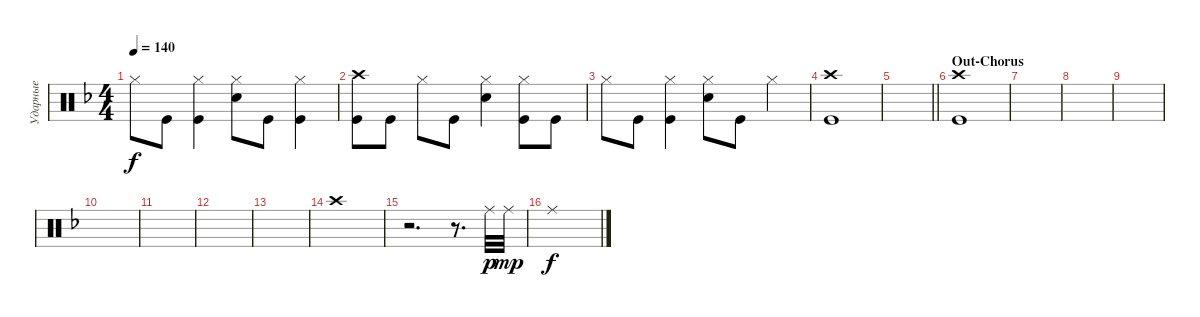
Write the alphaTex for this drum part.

\track ("Ударные" "Ударные") {instrument percussion}
\staff {score}
\articulation defaults
\ts (4 4)
\tempo 140
\clef neutral
\ks dminor "Hi-Hat (closed)".8{dy f} "Kick (hit)".8
("Kick (hit)" "Hi-Hat (closed)").4 ("Snare (hit) 2" "Hi-Hat (closed)").8 "Kick (hit)".8 ("Hi-Hat (closed)" "Kick (hit)").4 |
("Kick (hit)" "Crash high (hit)").8 "Kick (hit)".8 "Hi-Hat (closed)".8 "Kick (hit)".8 ("Snare (hit) 2" "Hi-Hat (closed)").4 ("Hi-Hat (closed)" "Kick (hit)").8 "Kick (hit)".8 |
"Hi-Hat (closed)".8 "Kick (hit)".8 ("Kick (hit)" "Hi-Hat (closed)").4 ("Snare (hit) 2" "Hi-Hat (closed)").8 "Kick (hit)".8 "Hi-Hat (closed)".4 |
("Kick (hit)" "Crash high (hit)").1 |
\barLineRight lightlight
|
\section ("" "Out-Chorus")
("Kick (hit)" "Crash high (hit)").1 |
|
|
|
|
|
|
|
"Crash high (hit)".1 |
r.2{d} r.8{d} "Ride (middle)".32{dy p} "Ride (middle)".32{dy mp} |
"Ride (middle)".1{dy f}
